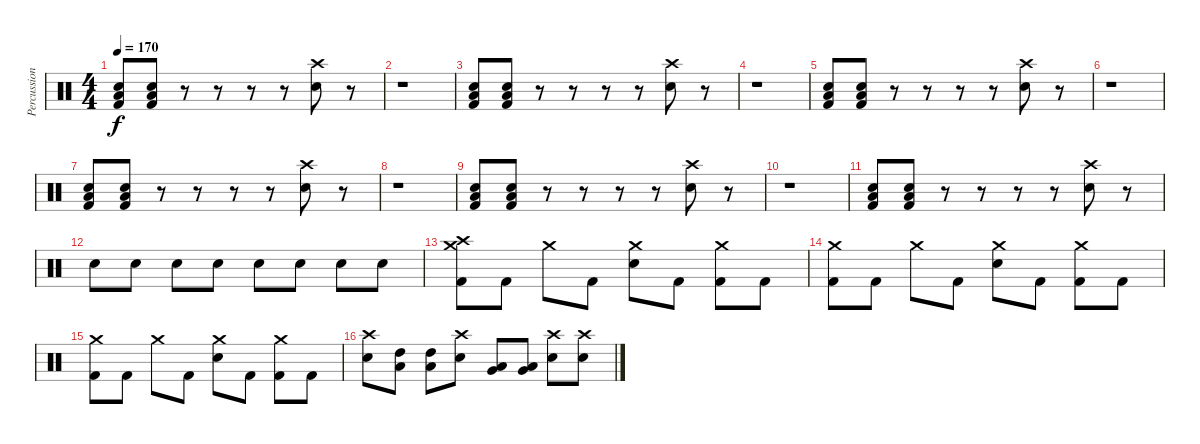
\track ("Percussions" "Percussion") {instrument percussion}
\staff {score}
\articulation defaults
\ts (4 4)
\tempo 170
\clef neutral
\ks c
("Kick (hit) 2" "Electric Snare (hit)" "Low Floor Tom (hit)").8{dy f} ("Kick (hit) 2" "Electric Snare (hit)" "Low Floor Tom (hit)").8 r.8 r.8 r.8 r.8 ("Crash high (hit)" "Electric Snare (hit)").8 r.8 |
r.1 |
("Kick (hit) 2" "Electric Snare (hit)" "Low Floor Tom (hit)").8 ("Kick (hit) 2" "Electric Snare (hit)" "Low Floor Tom (hit)").8 r.8 r.8 r.8 r.8 ("Crash high (hit)" "Electric Snare (hit)").8 r.8 |
r.1 |
("Kick (hit) 2" "Electric Snare (hit)" "Low Floor Tom (hit)").8 ("Kick (hit) 2" "Electric Snare (hit)" "Low Floor Tom (hit)").8 r.8 r.8 r.8 r.8 ("Crash high (hit)" "Electric Snare (hit)").8 r.8 |
r.1 |
("Kick (hit) 2" "Electric Snare (hit)" "Low Floor Tom (hit)").8 ("Kick (hit) 2" "Electric Snare (hit)" "Low Floor Tom (hit)").8 r.8 r.8 r.8 r.8 ("Crash high (hit)" "Electric Snare (hit)").8 r.8 |
r.1 |
("Kick (hit) 2" "Electric Snare (hit)" "Low Floor Tom (hit)").8 ("Kick (hit) 2" "Electric Snare (hit)" "Low Floor Tom (hit)").8 r.8 r.8 r.8 r.8 ("Crash high (hit)" "Electric Snare (hit)").8 r.8 |
r.1 |
("Kick (hit) 2" "Electric Snare (hit)" "Low Floor Tom (hit)").8 ("Kick (hit) 2" "Electric Snare (hit)" "Low Floor Tom (hit)").8 r.8 r.8 r.8 r.8 ("Crash high (hit)" "Electric Snare (hit)").8 r.8 |
"Electric Snare (hit)".8 "Electric Snare (hit)".8 "Electric Snare (hit)".8 "Electric Snare (hit)".8 "Electric Snare (hit)".8 "Electric Snare (hit)".8 "Electric Snare (hit)".8 "Electric Snare (hit)".8 |
("Crash high (hit)" "Crash medium (hit)" "Kick (hit) 2").8 "Kick (hit) 2".8 "Crash medium (hit)".8 "Kick (hit) 2".8 ("Crash medium (hit)" "Electric Snare (hit)").8 "Kick (hit) 2".8 ("Crash medium (hit)" "Kick (hit) 2").8 "Kick (hit) 2".8 |
("Crash medium (hit)" "Kick (hit) 2").8 "Kick (hit) 2".8 "Crash medium (hit)".8 "Kick (hit) 2".8 ("Crash medium (hit)" "Electric Snare (hit)").8 "Kick (hit) 2".8 ("Crash medium (hit)" "Kick (hit) 2").8 "Kick (hit) 2".8 |
("Crash medium (hit)" "Kick (hit) 2").8 "Kick (hit) 2".8 "Crash medium (hit)".8 "Kick (hit) 2".8 ("Crash medium (hit)" "Electric Snare (hit)").8 "Kick (hit) 2".8 ("Crash medium (hit)" "Kick (hit) 2").8 "Kick (hit) 2".8 |
("Crash high (hit)" "Electric Snare (hit)").8 ("High Tom (hit)" "Low Tom (hit)").8 ("High Tom (hit)" "Low Tom (hit)").8 ("Crash high (hit)" "Electric Snare (hit)").8 ("Very Low Tom (hit)" "Low Tom (hit)").8 ("Very Low Tom (hit)" "Low Tom (hit)").8 ("Crash high (hit)" "Electric Snare (hit)").8 ("Crash high (hit)" "Electric Snare (hit)").8
